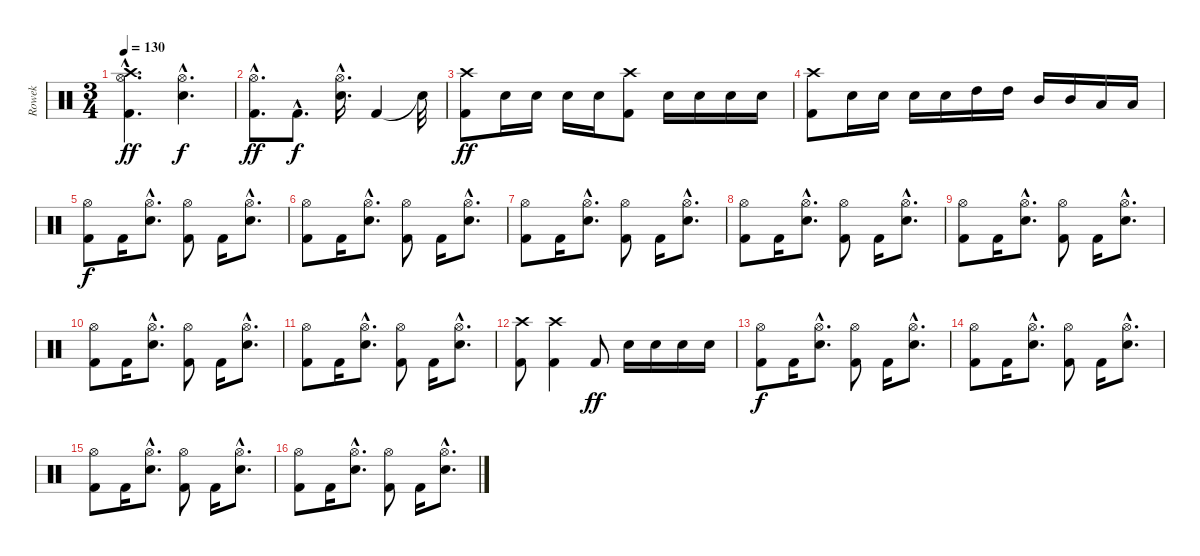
\track ("Rowek" "Rowek") {instrument percussion}
\staff {score}
\articulation defaults
\ts (3 4)
\tempo 130
\clef neutral
\ks c
("Hi-Hat (open)"{hac} "Crash high (hit)"{hac} "Kick (hit) 2"{hac}).4{d dy ff} ("Hi-Hat (open)"{hac} "Snare (hit) 2"{hac}).4{d dy f} |
("Hi-Hat (open)"{hac} "Kick (hit) 2"{hac}).8{d dy ff} "Kick (hit) 2"{hac}.8{d dy f} ("Hi-Hat (open)"{hac} "Snare (hit) 2"{hac}).16{d} "Kick (hit) 2".4 "Snare (hit)"{t}.32 |
("Kick (hit) 2" "Crash high (hit)").8{dy ff} "Electric Snare (hit)".16 "Electric Snare (hit)".16 "Electric Snare (hit)".16 "Electric Snare (hit)".16 ("Kick (hit) 2" "Crash high (hit)").8 "Electric Snare (hit)".16 "Electric Snare (hit)".16 "Electric Snare (hit)".16 "Electric Snare (hit)".16 |
("Kick (hit) 2" "Crash high (hit)").8 "Electric Snare (hit)".16 "Electric Snare (hit)".16 "Electric Snare (hit)".16 "Electric Snare (hit)".16 "High Tom (hit)".16 "High Tom (hit)".16 "Mid Tom (hit)".16 "Mid Tom (hit)".16 "Low Tom (hit)".16 "Low Tom (hit)".16 |
("Hi-Hat (open)" "Kick (hit) 2").8{dy f} "Kick (hit) 2".16 ("Hi-Hat (open)"{hac} "Snare (hit) 2"{hac}).8{d} ("Hi-Hat (open)" "Kick (hit) 2").8 "Kick (hit) 2".16 ("Hi-Hat (open)"{hac} "Snare (hit) 2"{hac}).8{d} |
("Hi-Hat (open)" "Kick (hit) 2").8 "Kick (hit) 2".16 ("Hi-Hat (open)"{hac} "Snare (hit) 2"{hac}).8{d} ("Hi-Hat (open)" "Kick (hit) 2").8 "Kick (hit) 2".16 ("Hi-Hat (open)"{hac} "Snare (hit) 2"{hac}).8{d} |
("Hi-Hat (open)" "Kick (hit) 2").8 "Kick (hit) 2".16 ("Hi-Hat (open)"{hac} "Snare (hit) 2"{hac}).8{d} ("Hi-Hat (open)" "Kick (hit) 2").8 "Kick (hit) 2".16 ("Hi-Hat (open)"{hac} "Snare (hit) 2"{hac}).8{d} |
("Hi-Hat (open)" "Kick (hit) 2").8 "Kick (hit) 2".16 ("Hi-Hat (open)"{hac} "Snare (hit) 2"{hac}).8{d} ("Hi-Hat (open)" "Kick (hit) 2").8 "Kick (hit) 2".16 ("Hi-Hat (open)"{hac} "Snare (hit) 2"{hac}).8{d} |
("Hi-Hat (open)" "Kick (hit) 2").8 "Kick (hit) 2".16 ("Hi-Hat (open)"{hac} "Snare (hit) 2"{hac}).8{d} ("Hi-Hat (open)" "Kick (hit) 2").8 "Kick (hit) 2".16 ("Hi-Hat (open)"{hac} "Snare (hit) 2"{hac}).8{d} |
("Hi-Hat (open)" "Kick (hit) 2").8 "Kick (hit) 2".16 ("Hi-Hat (open)"{hac} "Snare (hit) 2"{hac}).8{d} ("Hi-Hat (open)" "Kick (hit) 2").8 "Kick (hit) 2".16 ("Hi-Hat (open)"{hac} "Snare (hit) 2"{hac}).8{d} |
("Hi-Hat (open)" "Kick (hit) 2").8 "Kick (hit) 2".16 ("Hi-Hat (open)"{hac} "Snare (hit) 2"{hac}).8{d} ("Hi-Hat (open)" "Kick (hit) 2").8 "Kick (hit) 2".16 ("Hi-Hat (open)"{hac} "Snare (hit) 2"{hac}).8{d} |
("Crash high (hit)" "Kick (hit) 2").8 ("Crash high (hit)" "Kick (hit) 2").4 "Kick (hit) 2".8{dy ff} "Electric Snare (hit)".16 "Electric Snare (hit)".16 "Electric Snare (hit)".16 "Electric Snare (hit)".16 |
("Hi-Hat (open)" "Kick (hit) 2").8{dy f} "Kick (hit) 2".16 ("Hi-Hat (open)"{hac} "Snare (hit) 2"{hac}).8{d} ("Hi-Hat (open)" "Kick (hit) 2").8 "Kick (hit) 2".16 ("Hi-Hat (open)"{hac} "Snare (hit) 2"{hac}).8{d} |
("Hi-Hat (open)" "Kick (hit) 2").8 "Kick (hit) 2".16 ("Hi-Hat (open)"{hac} "Snare (hit) 2"{hac}).8{d} ("Hi-Hat (open)" "Kick (hit) 2").8 "Kick (hit) 2".16 ("Hi-Hat (open)"{hac} "Snare (hit) 2"{hac}).8{d} |
("Hi-Hat (open)" "Kick (hit) 2").8 "Kick (hit) 2".16 ("Hi-Hat (open)"{hac} "Snare (hit) 2"{hac}).8{d} ("Hi-Hat (open)" "Kick (hit) 2").8 "Kick (hit) 2".16 ("Hi-Hat (open)"{hac} "Snare (hit) 2"{hac}).8{d} |
("Hi-Hat (open)" "Kick (hit) 2").8 "Kick (hit) 2".16 ("Hi-Hat (open)"{hac} "Snare (hit) 2"{hac}).8{d} ("Hi-Hat (open)" "Kick (hit) 2").8 "Kick (hit) 2".16 ("Hi-Hat (open)"{hac} "Snare (hit) 2"{hac}).8{d}
